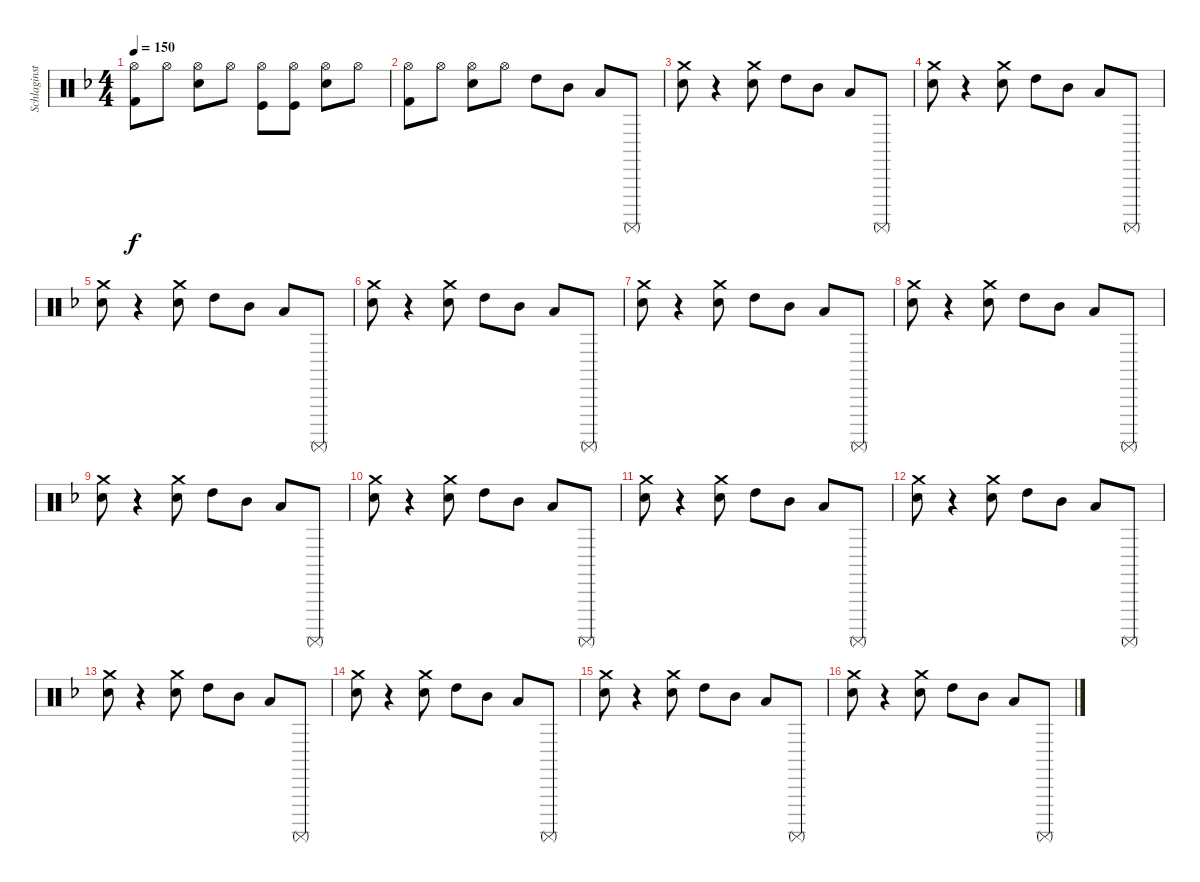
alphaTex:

\track ("Schlaginstrumente - Auswahl" "Schlaginst") {instrument percussion}
\staff {score}
\articulation defaults
\ts (4 4)
\tempo 150
\clef neutral
\ks f
("Hi-Hat (open)" "Kick (hit) 2").8{dy f} "Hi-Hat (open)".8 ("Hi-Hat (open)" "Snare (hit) 2").8 "Hi-Hat (open)".8 ("Hi-Hat (open)" "Kick (hit)").8 ("Kick (hit)" "Hi-Hat (open)").8 ("Hi-Hat (open)" "Snare (hit) 2").8 "Hi-Hat (open)".8 |
("Hi-Hat (open)" "Kick (hit) 2").8 "Hi-Hat (open)".8 ("Hi-Hat (open)" "Snare (hit) 2").8 "Hi-Hat (open)".8 "High Tom (hit)".8 "Mid Tom (hit)".8 "Low Tom (hit)".8 "Surdo (mute)".8 |
("Crash medium (hit)" "Snare (hit) 2").8 r.4 ("Snare (hit) 2" "Crash medium (hit)").8 "High Tom (hit)".8 "Mid Tom (hit)".8 "Low Tom (hit)".8 "Surdo (mute)".8 |
("Crash medium (hit)" "Snare (hit) 2").8 r.4 ("Snare (hit) 2" "Crash medium (hit)").8 "High Tom (hit)".8 "Mid Tom (hit)".8 "Low Tom (hit)".8 "Surdo (mute)".8 |
("Crash medium (hit)" "Snare (hit) 2").8 r.4 ("Snare (hit) 2" "Crash medium (hit)").8 "High Tom (hit)".8 "Mid Tom (hit)".8 "Low Tom (hit)".8 "Surdo (mute)".8 |
("Crash medium (hit)" "Snare (hit) 2").8 r.4 ("Snare (hit) 2" "Crash medium (hit)").8 "High Tom (hit)".8 "Mid Tom (hit)".8 "Low Tom (hit)".8 "Surdo (mute)".8 |
("Crash medium (hit)" "Snare (hit) 2").8 r.4 ("Snare (hit) 2" "Crash medium (hit)").8 "High Tom (hit)".8 "Mid Tom (hit)".8 "Low Tom (hit)".8 "Surdo (mute)".8 |
("Crash medium (hit)" "Snare (hit) 2").8 r.4 ("Snare (hit) 2" "Crash medium (hit)").8 "High Tom (hit)".8 "Mid Tom (hit)".8 "Low Tom (hit)".8 "Surdo (mute)".8 |
("Crash medium (hit)" "Snare (hit) 2").8 r.4 ("Snare (hit) 2" "Crash medium (hit)").8 "High Tom (hit)".8 "Mid Tom (hit)".8 "Low Tom (hit)".8 "Surdo (mute)".8 |
("Crash medium (hit)" "Snare (hit) 2").8 r.4 ("Snare (hit) 2" "Crash medium (hit)").8 "High Tom (hit)".8 "Mid Tom (hit)".8 "Low Tom (hit)".8 "Surdo (mute)".8 |
("Crash medium (hit)" "Snare (hit) 2").8 r.4 ("Snare (hit) 2" "Crash medium (hit)").8 "High Tom (hit)".8 "Mid Tom (hit)".8 "Low Tom (hit)".8 "Surdo (mute)".8 |
("Crash medium (hit)" "Snare (hit) 2").8 r.4 ("Snare (hit) 2" "Crash medium (hit)").8 "High Tom (hit)".8 "Mid Tom (hit)".8 "Low Tom (hit)".8 "Surdo (mute)".8 |
("Crash medium (hit)" "Snare (hit) 2").8 r.4 ("Snare (hit) 2" "Crash medium (hit)").8 "High Tom (hit)".8 "Mid Tom (hit)".8 "Low Tom (hit)".8 "Surdo (mute)".8 |
("Crash medium (hit)" "Snare (hit) 2").8 r.4 ("Snare (hit) 2" "Crash medium (hit)").8 "High Tom (hit)".8 "Mid Tom (hit)".8 "Low Tom (hit)".8 "Surdo (mute)".8 |
("Crash medium (hit)" "Snare (hit) 2").8 r.4 ("Snare (hit) 2" "Crash medium (hit)").8 "High Tom (hit)".8 "Mid Tom (hit)".8 "Low Tom (hit)".8 "Surdo (mute)".8 |
("Crash medium (hit)" "Snare (hit) 2").8 r.4 ("Snare (hit) 2" "Crash medium (hit)").8 "High Tom (hit)".8 "Mid Tom (hit)".8 "Low Tom (hit)".8 "Surdo (mute)".8
